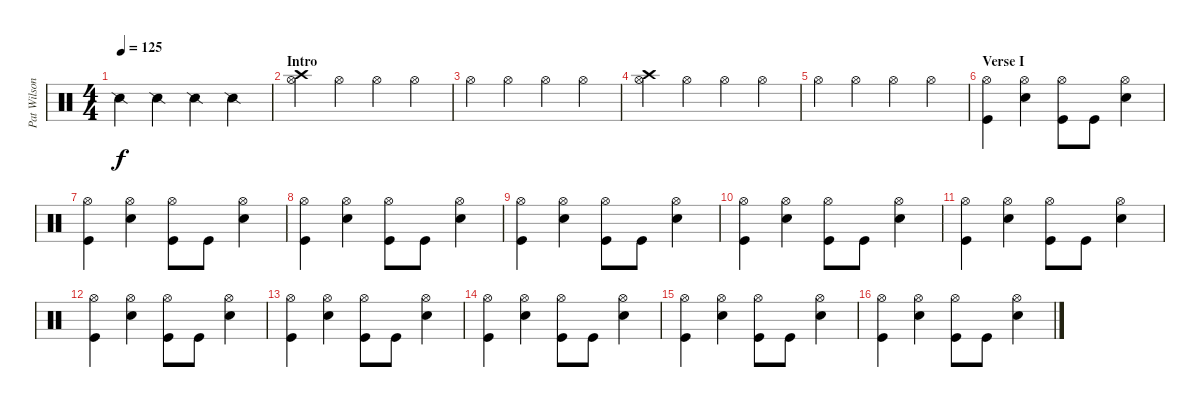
\track ("Pat Wilson-Drums" "Pat Wilson") {instrument percussion}
\staff {score}
\articulation defaults
\ts (4 4)
\tempo 125
\clef neutral
\ks c "Snare (side stick) 2".4{dy f} "Snare (side stick) 2".4 "Snare (side stick) 2".4 "Snare (side stick) 2".4
|
\section ("" "Intro")
("Crash high (hit)" "Hi-Hat (open)").4 "Hi-Hat (open)".4 "Hi-Hat (open)".4 "Hi-Hat (open)".4 |
"Hi-Hat (open)".4 "Hi-Hat (open)".4 "Hi-Hat (open)".4 "Hi-Hat (open)".4 |
("Crash high (hit)" "Hi-Hat (open)").4 "Hi-Hat (open)".4 "Hi-Hat (open)".4 "Hi-Hat (open)".4 |
"Hi-Hat (open)".4 "Hi-Hat (open)".4 "Hi-Hat (open)".4 "Hi-Hat (open)".4 |
\section ("" "Verse I")
("Kick (hit)" "Hi-Hat (open)").4 ("Snare (hit) 2" "Hi-Hat (open)").4 ("Kick (hit)" "Hi-Hat (open)").8 "Kick (hit)".8 ("Snare (hit) 2" "Hi-Hat (open)").4 |
("Kick (hit)" "Hi-Hat (open)").4 ("Snare (hit) 2" "Hi-Hat (open)").4 ("Kick (hit)" "Hi-Hat (open)").8 "Kick (hit)".8 ("Snare (hit) 2" "Hi-Hat (open)").4 |
("Kick (hit)" "Hi-Hat (open)").4 ("Snare (hit) 2" "Hi-Hat (open)").4 ("Kick (hit)" "Hi-Hat (open)").8 "Kick (hit)".8 ("Snare (hit) 2" "Hi-Hat (open)").4 |
("Kick (hit)" "Hi-Hat (open)").4 ("Snare (hit) 2" "Hi-Hat (open)").4 ("Kick (hit)" "Hi-Hat (open)").8 "Kick (hit)".8 ("Snare (hit) 2" "Hi-Hat (open)").4 |
("Kick (hit)" "Hi-Hat (open)").4 ("Snare (hit) 2" "Hi-Hat (open)").4 ("Kick (hit)" "Hi-Hat (open)").8 "Kick (hit)".8 ("Snare (hit) 2" "Hi-Hat (open)").4 |
("Kick (hit)" "Hi-Hat (open)").4 ("Snare (hit) 2" "Hi-Hat (open)").4 ("Kick (hit)" "Hi-Hat (open)").8 "Kick (hit)".8 ("Snare (hit) 2" "Hi-Hat (open)").4 |
("Kick (hit)" "Hi-Hat (open)").4 ("Snare (hit) 2" "Hi-Hat (open)").4 ("Kick (hit)" "Hi-Hat (open)").8 "Kick (hit)".8 ("Snare (hit) 2" "Hi-Hat (open)").4 |
("Kick (hit)" "Hi-Hat (open)").4 ("Snare (hit) 2" "Hi-Hat (open)").4 ("Kick (hit)" "Hi-Hat (open)").8 "Kick (hit)".8 ("Snare (hit) 2" "Hi-Hat (open)").4 |
("Kick (hit)" "Hi-Hat (open)").4 ("Snare (hit) 2" "Hi-Hat (open)").4 ("Kick (hit)" "Hi-Hat (open)").8 "Kick (hit)".8 ("Snare (hit) 2" "Hi-Hat (open)").4 |
("Kick (hit)" "Hi-Hat (open)").4 ("Snare (hit) 2" "Hi-Hat (open)").4 ("Kick (hit)" "Hi-Hat (open)").8 "Kick (hit)".8 ("Snare (hit) 2" "Hi-Hat (open)").4 |
("Kick (hit)" "Hi-Hat (open)").4 ("Snare (hit) 2" "Hi-Hat (open)").4 ("Kick (hit)" "Hi-Hat (open)").8 "Kick (hit)".8 ("Snare (hit) 2" "Hi-Hat (open)").4
